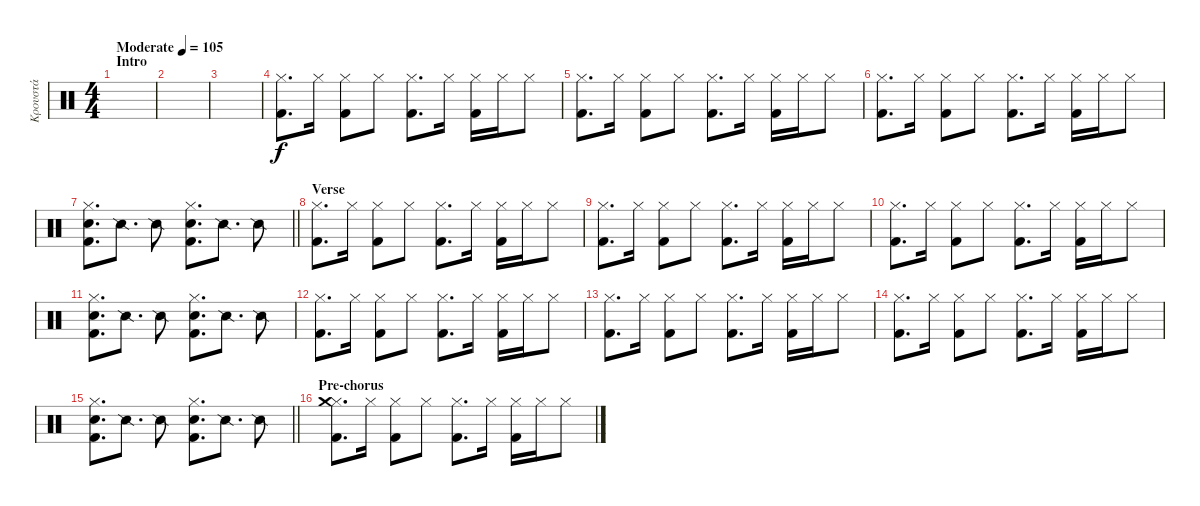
\track ("Κρουστά" "Κρουστά") {instrument percussion}
\staff {score}
\articulation defaults
\ts (4 4)
\section ("" "Intro")
\tempo (105 "Moderate")
\clef neutral
\ks c
|
|
|
("Hi-Hat (closed)" "Kick (hit) 2").8{d} "Hi-Hat (closed)".16 ("Hi-Hat (closed)" "Kick (hit) 2").8 "Hi-Hat (closed)".8 ("Hi-Hat (closed)" "Kick (hit) 2").8{d} "Hi-Hat (closed)".16 ("Hi-Hat (closed)" "Kick (hit) 2").16 "Hi-Hat (closed)".16 "Hi-Hat (closed)".8 |
("Hi-Hat (closed)" "Kick (hit) 2").8{d} "Hi-Hat (closed)".16 ("Hi-Hat (closed)" "Kick (hit) 2").8 "Hi-Hat (closed)".8 ("Hi-Hat (closed)" "Kick (hit) 2").8{d} "Hi-Hat (closed)".16 ("Hi-Hat (closed)" "Kick (hit) 2").16 "Hi-Hat (closed)".16 "Hi-Hat (closed)".8 |
("Hi-Hat (closed)" "Kick (hit) 2").8{d} "Hi-Hat (closed)".16 ("Hi-Hat (closed)" "Kick (hit) 2").8 "Hi-Hat (closed)".8 ("Hi-Hat (closed)" "Kick (hit) 2").8{d} "Hi-Hat (closed)".16 ("Hi-Hat (closed)" "Kick (hit) 2").16 "Hi-Hat (closed)".16 "Hi-Hat (closed)".8 |
\barLineRight lightlight
("Kick (hit) 2" "Hi-Hat (closed)" "Electric Snare (hit)").8{d} "Snare (side stick) 2".8{d} "Snare (side stick) 2".8 ("Kick (hit) 2" "Hi-Hat (closed)" "Electric Snare (hit)").8{d} "Snare (side stick) 2".8{d} "Snare (side stick) 2".8 |
\section ("" "Verse")
("Hi-Hat (closed)" "Kick (hit) 2").8{d} "Hi-Hat (closed)".16 ("Hi-Hat (closed)" "Kick (hit) 2").8 "Hi-Hat (closed)".8 ("Hi-Hat (closed)" "Kick (hit) 2").8{d} "Hi-Hat (closed)".16 ("Hi-Hat (closed)" "Kick (hit) 2").16 "Hi-Hat (closed)".16 "Hi-Hat (closed)".8 |
("Hi-Hat (closed)" "Kick (hit) 2").8{d} "Hi-Hat (closed)".16 ("Hi-Hat (closed)" "Kick (hit) 2").8 "Hi-Hat (closed)".8 ("Hi-Hat (closed)" "Kick (hit) 2").8{d} "Hi-Hat (closed)".16 ("Hi-Hat (closed)" "Kick (hit) 2").16 "Hi-Hat (closed)".16 "Hi-Hat (closed)".8 |
("Hi-Hat (closed)" "Kick (hit) 2").8{d} "Hi-Hat (closed)".16 ("Hi-Hat (closed)" "Kick (hit) 2").8 "Hi-Hat (closed)".8 ("Hi-Hat (closed)" "Kick (hit) 2").8{d} "Hi-Hat (closed)".16 ("Hi-Hat (closed)" "Kick (hit) 2").16 "Hi-Hat (closed)".16 "Hi-Hat (closed)".8 |
("Kick (hit) 2" "Hi-Hat (closed)" "Electric Snare (hit)").8{d} "Snare (side stick) 2".8{d} "Snare (side stick) 2".8 ("Kick (hit) 2" "Hi-Hat (closed)" "Electric Snare (hit)").8{d} "Snare (side stick) 2".8{d} "Snare (side stick) 2".8 |
("Hi-Hat (closed)" "Kick (hit) 2").8{d} "Hi-Hat (closed)".16 ("Hi-Hat (closed)" "Kick (hit) 2").8 "Hi-Hat (closed)".8 ("Hi-Hat (closed)" "Kick (hit) 2").8{d} "Hi-Hat (closed)".16 ("Hi-Hat (closed)" "Kick (hit) 2").16 "Hi-Hat (closed)".16 "Hi-Hat (closed)".8 |
("Hi-Hat (closed)" "Kick (hit) 2").8{d} "Hi-Hat (closed)".16 ("Hi-Hat (closed)" "Kick (hit) 2").8 "Hi-Hat (closed)".8 ("Hi-Hat (closed)" "Kick (hit) 2").8{d} "Hi-Hat (closed)".16 ("Hi-Hat (closed)" "Kick (hit) 2").16 "Hi-Hat (closed)".16 "Hi-Hat (closed)".8 |
("Hi-Hat (closed)" "Kick (hit) 2").8{d} "Hi-Hat (closed)".16 ("Hi-Hat (closed)" "Kick (hit) 2").8 "Hi-Hat (closed)".8 ("Hi-Hat (closed)" "Kick (hit) 2").8{d} "Hi-Hat (closed)".16 ("Hi-Hat (closed)" "Kick (hit) 2").16 "Hi-Hat (closed)".16 "Hi-Hat (closed)".8 |
\barLineRight lightlight
("Kick (hit) 2" "Hi-Hat (closed)" "Electric Snare (hit)").8{d} "Snare (side stick) 2".8{d} "Snare (side stick) 2".8 ("Kick (hit) 2" "Hi-Hat (closed)" "Electric Snare (hit)").8{d} "Snare (side stick) 2".8{d} "Snare (side stick) 2".8 |
\section ("" "Pre-chorus")
("Hi-Hat (closed)" "Kick (hit) 2" "Crash medium (hit)").8{d} "Hi-Hat (closed)".16 ("Hi-Hat (closed)" "Kick (hit) 2").8 "Hi-Hat (closed)".8 ("Hi-Hat (closed)" "Kick (hit) 2").8{d} "Hi-Hat (closed)".16 ("Hi-Hat (closed)" "Kick (hit) 2").16 "Hi-Hat (closed)".16 "Hi-Hat (closed)".8
